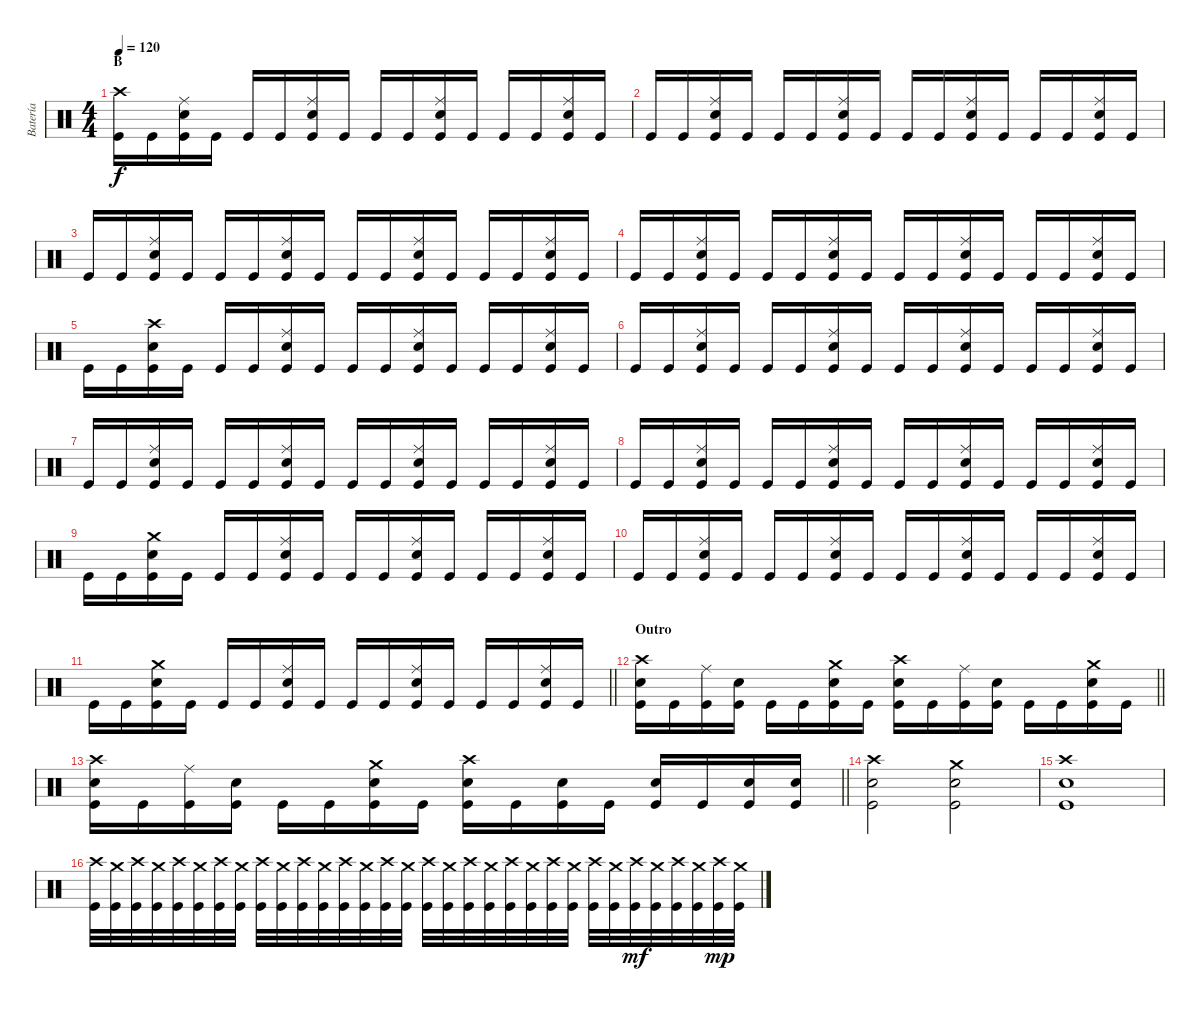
\track ("Batería" "Batería") {instrument percussion}
\staff {score}
\articulation defaults
\ts (4 4)
\section ("" "B")
\tempo 120
\clef neutral
\ks c
("Crash high (hit)" "Kick (hit)").16{dy f} "Kick (hit)".16 ("Ride (middle)" "Snare (hit) 2" "Kick (hit)").16 "Kick (hit)".16 "Kick (hit)".16 "Kick (hit)".16 ("Ride (middle)" "Snare (hit) 2" "Kick (hit)").16 "Kick (hit)".16 "Kick (hit)".16 "Kick (hit)".16 ("Ride (middle)" "Snare (hit) 2" "Kick (hit)").16 "Kick (hit)".16 "Kick (hit)".16 "Kick (hit)".16 ("Ride (middle)" "Snare (hit) 2" "Kick (hit)").16 "Kick (hit)".16 |
"Kick (hit)".16 "Kick (hit)".16 ("Ride (middle)" "Snare (hit) 2" "Kick (hit)").16 "Kick (hit)".16 "Kick (hit)".16 "Kick (hit)".16 ("Ride (middle)" "Snare (hit) 2" "Kick (hit)").16 "Kick (hit)".16 "Kick (hit)".16 "Kick (hit)".16 ("Ride (middle)" "Snare (hit) 2" "Kick (hit)").16 "Kick (hit)".16 "Kick (hit)".16 "Kick (hit)".16 ("Ride (middle)" "Snare (hit) 2" "Kick (hit)").16 "Kick (hit)".16 |
"Kick (hit)".16 "Kick (hit)".16 ("Ride (middle)" "Snare (hit) 2" "Kick (hit)").16 "Kick (hit)".16 "Kick (hit)".16 "Kick (hit)".16 ("Ride (middle)" "Snare (hit) 2" "Kick (hit)").16 "Kick (hit)".16 "Kick (hit)".16 "Kick (hit)".16 ("Ride (middle)" "Snare (hit) 2" "Kick (hit)").16 "Kick (hit)".16 "Kick (hit)".16 "Kick (hit)".16 ("Ride (middle)" "Snare (hit) 2" "Kick (hit)").16 "Kick (hit)".16 |
"Kick (hit)".16 "Kick (hit)".16 ("Ride (middle)" "Snare (hit) 2" "Kick (hit)").16 "Kick (hit)".16 "Kick (hit)".16 "Kick (hit)".16 ("Ride (middle)" "Snare (hit) 2" "Kick (hit)").16 "Kick (hit)".16 "Kick (hit)".16 "Kick (hit)".16 ("Ride (middle)" "Snare (hit) 2" "Kick (hit)").16 "Kick (hit)".16 "Kick (hit)".16 "Kick (hit)".16 ("Ride (middle)" "Snare (hit) 2" "Kick (hit)").16 "Kick (hit)".16 |
"Kick (hit)".16 "Kick (hit)".16 ("Crash high (hit)" "Snare (hit) 2" "Kick (hit)").16 "Kick (hit)".16 "Kick (hit)".16 "Kick (hit)".16 ("Ride (middle)" "Snare (hit) 2" "Kick (hit)").16 "Kick (hit)".16 "Kick (hit)".16 "Kick (hit)".16 ("Ride (middle)" "Snare (hit) 2" "Kick (hit)").16 "Kick (hit)".16 "Kick (hit)".16 "Kick (hit)".16 ("Ride (middle)" "Snare (hit) 2" "Kick (hit)").16 "Kick (hit)".16 |
"Kick (hit)".16 "Kick (hit)".16 ("Ride (middle)" "Snare (hit) 2" "Kick (hit)").16 "Kick (hit)".16 "Kick (hit)".16 "Kick (hit)".16 ("Ride (middle)" "Snare (hit) 2" "Kick (hit)").16 "Kick (hit)".16 "Kick (hit)".16 "Kick (hit)".16 ("Ride (middle)" "Snare (hit) 2" "Kick (hit)").16 "Kick (hit)".16 "Kick (hit)".16 "Kick (hit)".16 ("Ride (middle)" "Snare (hit) 2" "Kick (hit)").16 "Kick (hit)".16 |
"Kick (hit)".16 "Kick (hit)".16 ("Ride (middle)" "Snare (hit) 2" "Kick (hit)").16 "Kick (hit)".16 "Kick (hit)".16 "Kick (hit)".16 ("Ride (middle)" "Snare (hit) 2" "Kick (hit)").16 "Kick (hit)".16 "Kick (hit)".16 "Kick (hit)".16 ("Ride (middle)" "Snare (hit) 2" "Kick (hit)").16 "Kick (hit)".16 "Kick (hit)".16 "Kick (hit)".16 ("Ride (middle)" "Snare (hit) 2" "Kick (hit)").16 "Kick (hit)".16 |
"Kick (hit)".16 "Kick (hit)".16 ("Ride (middle)" "Snare (hit) 2" "Kick (hit)").16 "Kick (hit)".16 "Kick (hit)".16 "Kick (hit)".16 ("Ride (middle)" "Snare (hit) 2" "Kick (hit)").16 "Kick (hit)".16 "Kick (hit)".16 "Kick (hit)".16 ("Ride (middle)" "Snare (hit) 2" "Kick (hit)").16 "Kick (hit)".16 "Kick (hit)".16 "Kick (hit)".16 ("Ride (middle)" "Snare (hit) 2" "Kick (hit)").16 "Kick (hit)".16 |
"Kick (hit)".16 "Kick (hit)".16 ("Crash medium (hit)" "Snare (hit) 2" "Kick (hit)").16 "Kick (hit)".16 "Kick (hit)".16 "Kick (hit)".16 ("Ride (middle)" "Snare (hit) 2" "Kick (hit)").16 "Kick (hit)".16 "Kick (hit)".16 "Kick (hit)".16 ("Ride (middle)" "Snare (hit) 2" "Kick (hit)").16 "Kick (hit)".16 "Kick (hit)".16 "Kick (hit)".16 ("Ride (middle)" "Snare (hit) 2" "Kick (hit)").16 "Kick (hit)".16 |
"Kick (hit)".16 "Kick (hit)".16 ("Ride (middle)" "Snare (hit) 2" "Kick (hit)").16 "Kick (hit)".16 "Kick (hit)".16 "Kick (hit)".16 ("Ride (middle)" "Snare (hit) 2" "Kick (hit)").16 "Kick (hit)".16 "Kick (hit)".16 "Kick (hit)".16 ("Ride (middle)" "Snare (hit) 2" "Kick (hit)").16 "Kick (hit)".16 "Kick (hit)".16 "Kick (hit)".16 ("Ride (middle)" "Snare (hit) 2" "Kick (hit)").16 "Kick (hit)".16 |
\barLineRight lightlight "Kick (hit)".16 "Kick (hit)".16
("Crash medium (hit)" "Snare (hit) 2" "Kick (hit)").16 "Kick (hit)".16 "Kick (hit)".16 "Kick (hit)".16 ("Ride (middle)" "Snare (hit) 2" "Kick (hit)").16 "Kick (hit)".16 "Kick (hit)".16 "Kick (hit)".16 ("Ride (middle)" "Snare (hit) 2" "Kick (hit)").16 "Kick (hit)".16 "Kick (hit)".16 "Kick (hit)".16 ("Ride (middle)" "Snare (hit) 2" "Kick (hit)").16 "Kick (hit)".16 |
\section ("" "Outro")
\barLineRight lightlight
("Crash high (hit)" "Snare (hit) 2" "Kick (hit)").16 "Kick (hit)".16 ("Ride (middle)" "Kick (hit)").16 ("Snare (hit) 2" "Kick (hit)").16 "Kick (hit)".16 "Kick (hit)".16 ("Crash medium (hit)" "Snare (hit) 2" "Kick (hit)").16 "Kick (hit)".16 ("Crash high (hit)" "Snare (hit) 2" "Kick (hit)").16 "Kick (hit)".16 ("Ride (middle)" "Kick (hit)").16 ("Snare (hit) 2" "Kick (hit)").16 "Kick (hit)".16 "Kick (hit)".16 ("Crash medium (hit)" "Snare (hit) 2" "Kick (hit)").16 "Kick (hit)".16 |
\barLineRight lightlight
("Crash high (hit)" "Snare (hit) 2" "Kick (hit)").16 "Kick (hit)".16 ("Ride (middle)" "Kick (hit)").16 ("Snare (hit) 2" "Kick (hit)").16 "Kick (hit)".16 "Kick (hit)".16 ("Crash medium (hit)" "Snare (hit) 2" "Kick (hit)").16 "Kick (hit)".16 ("Crash high (hit)" "Snare (hit) 2" "Kick (hit)").16 "Kick (hit)".16 ("Snare (hit) 2" "Kick (hit)").16 "Kick (hit)".16 ("Snare (hit) 2" "Kick (hit)").16 "Kick (hit)".16 ("Snare (hit) 2" "Kick (hit)").16 ("Snare (hit) 2" "Kick (hit)").16 |
("Crash high (hit)" "Snare (hit) 2" "Kick (hit)").2 ("Crash medium (hit)" "Snare (hit) 2" "Kick (hit)").2 |
("Crash high (hit)" "Snare (hit) 2" "Kick (hit)").1 |
("Crash high (hit)" "Kick (hit)").32 ("Crash medium (hit)" "Kick (hit)").32 ("Crash high (hit)" "Kick (hit)").32 ("Crash medium (hit)" "Kick (hit)").32 ("Crash high (hit)" "Kick (hit)").32 ("Crash medium (hit)" "Kick (hit)").32 ("Crash high (hit)" "Kick (hit)").32 ("Crash medium (hit)" "Kick (hit)").32 ("Crash high (hit)" "Kick (hit)").32 ("Crash medium (hit)" "Kick (hit)").32 ("Crash high (hit)" "Kick (hit)").32 ("Crash medium (hit)" "Kick (hit)").32 ("Crash high (hit)" "Kick (hit)").32 ("Crash medium (hit)" "Kick (hit)").32 ("Crash high (hit)" "Kick (hit)").32 ("Crash medium (hit)" "Kick (hit)").32 ("Crash high (hit)" "Kick (hit)").32 ("Crash medium (hit)" "Kick (hit)").32 ("Crash high (hit)" "Kick (hit)").32 ("Crash medium (hit)" "Kick (hit)").32 ("Crash high (hit)" "Kick (hit)").32 ("Crash medium (hit)" "Kick (hit)").32 ("Crash high (hit)" "Kick (hit)").32 ("Crash medium (hit)" "Kick (hit)").32 ("Crash high (hit)" "Kick (hit)").32 ("Crash medium (hit)" "Kick (hit)").32 ("Crash high (hit)" "Kick (hit)").32{dy mf} ("Crash medium (hit)" "Kick (hit)").32 ("Crash high (hit)" "Kick (hit)").32 ("Crash medium (hit)" "Kick (hit)").32 ("Crash high (hit)" "Kick (hit)").32{dy mp} ("Crash medium (hit)" "Kick (hit)").32
